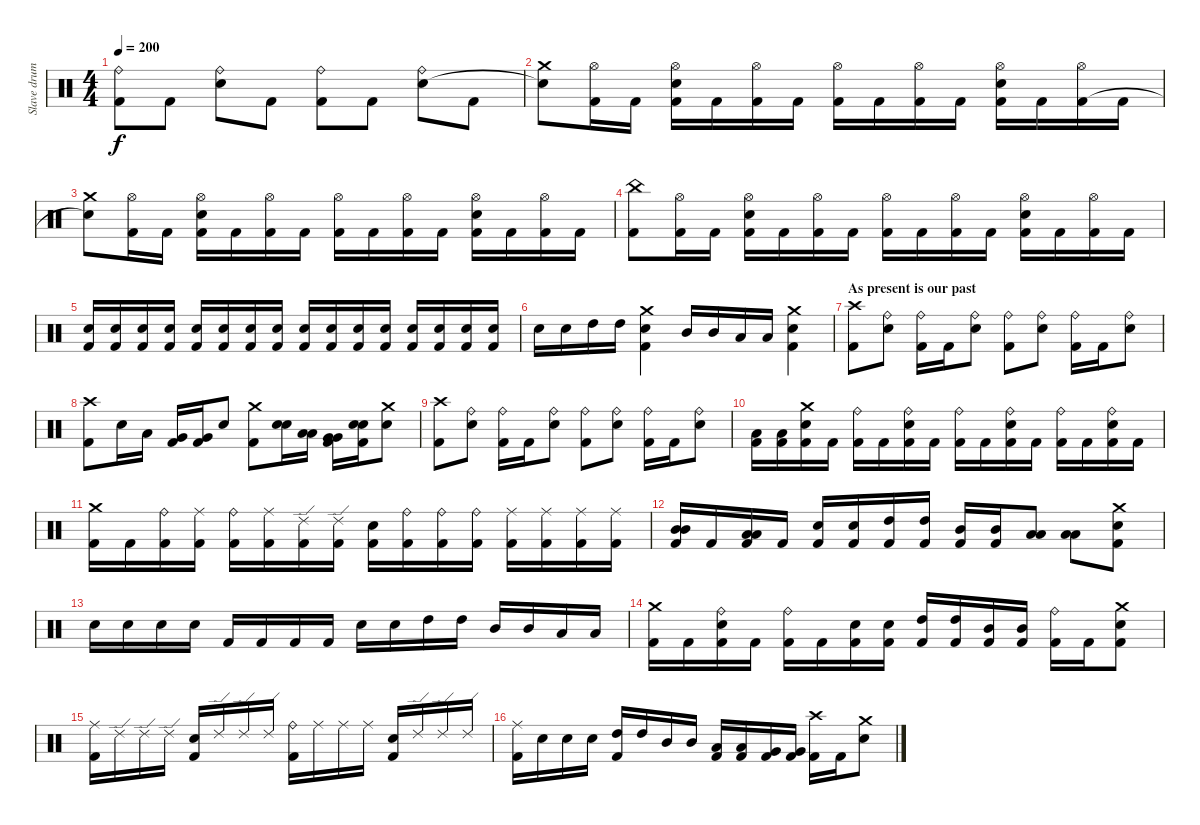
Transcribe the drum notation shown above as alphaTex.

\track ("Slave drum" "Slave drum") {instrument percussion}
\staff {score}
\articulation defaults
\ts (4 4)
\tempo 200
\clef neutral
\ks c
("Ride (bell)" "Kick (hit) 2").8{dy f} "Kick (hit) 2".8 ("Ride (bell)" "Electric Snare (hit)").8 "Kick (hit) 2".8 ("Ride (bell)" "Kick (hit) 2").8 "Kick (hit) 2".8 ("Ride (bell)" "Electric Snare (hit)").8 "Kick (hit) 2".8 |
("Crash medium (hit)" "Snare (hit)"{t}).8 ("Hi-Hat (open)" "Kick (hit) 2").16 "Kick (hit) 2".16 ("Hi-Hat (open)" "Electric Snare (hit)" "Kick (hit) 2").16 "Kick (hit) 2".16 ("Hi-Hat (open)" "Kick (hit) 2").16 "Kick (hit) 2".16 ("Hi-Hat (open)" "Kick (hit) 2").16 "Kick (hit) 2".16 ("Hi-Hat (open)" "Kick (hit) 2").16 "Kick (hit) 2".16 ("Hi-Hat (open)" "Electric Snare (hit)" "Kick (hit) 2").16 "Kick (hit) 2".16 ("Hi-Hat (open)" "Kick (hit) 2").16 "Kick (hit) 2".16 |
("Crash medium (hit)" "Snare (hit)"{t}).8 ("Hi-Hat (open)" "Kick (hit) 2").16 "Kick (hit) 2".16 ("Hi-Hat (open)" "Electric Snare (hit)" "Kick (hit) 2").16 "Kick (hit) 2".16 ("Hi-Hat (open)" "Kick (hit) 2").16 "Kick (hit) 2".16 ("Hi-Hat (open)" "Kick (hit) 2").16 "Kick (hit) 2".16 ("Hi-Hat (open)" "Kick (hit) 2").16 "Kick (hit) 2".16 ("Hi-Hat (open)" "Electric Snare (hit)" "Kick (hit) 2").16 "Kick (hit) 2".16 ("Hi-Hat (open)" "Kick (hit) 2").16 "Kick (hit) 2".16 |
("China (hit)" "Kick (hit) 2").8 ("Hi-Hat (open)" "Kick (hit) 2").16 "Kick (hit) 2".16 ("Hi-Hat (open)" "Electric Snare (hit)" "Kick (hit) 2").16 "Kick (hit) 2".16 ("Hi-Hat (open)" "Kick (hit) 2").16 "Kick (hit) 2".16 ("Hi-Hat (open)" "Kick (hit) 2").16 "Kick (hit) 2".16 ("Hi-Hat (open)" "Kick (hit) 2").16 "Kick (hit) 2".16 ("Hi-Hat (open)" "Electric Snare (hit)" "Kick (hit) 2").16 "Kick (hit) 2".16 ("Hi-Hat (open)" "Kick (hit) 2").16 "Kick (hit) 2".16 |
("Electric Snare (hit)" "Kick (hit) 2").16 ("Electric Snare (hit)" "Kick (hit) 2").16 ("Electric Snare (hit)" "Kick (hit) 2").16 ("Electric Snare (hit)" "Kick (hit) 2").16 ("Electric Snare (hit)" "Kick (hit) 2").16 ("Electric Snare (hit)" "Kick (hit) 2").16 ("Electric Snare (hit)" "Kick (hit) 2").16 ("Electric Snare (hit)" "Kick (hit) 2").16 ("Electric Snare (hit)" "Kick (hit) 2").16 ("Electric Snare (hit)" "Kick (hit) 2").16 ("Electric Snare (hit)" "Kick (hit) 2").16 ("Electric Snare (hit)" "Kick (hit) 2").16 ("Electric Snare (hit)" "Kick (hit) 2").16 ("Electric Snare (hit)" "Kick (hit) 2").16 ("Electric Snare (hit)" "Kick (hit) 2").16 ("Electric Snare (hit)" "Kick (hit) 2").16 |
"Electric Snare (hit)".16 "Electric Snare (hit)".16 "High Tom (hit)".16 "High Tom (hit)".16 ("Crash medium (hit)" "Electric Snare (hit)" "Kick (hit) 2").4 "Mid Tom (hit)".16 "Mid Tom (hit)".16 "Low Tom (hit)".16 "Low Tom (hit)".16 ("Crash medium (hit)" "Electric Snare (hit)" "Kick (hit) 2").4 |
\section ("" "As present is our past")
("Crash high (hit)" "Kick (hit) 2").8 ("Ride (bell)" "Electric Snare (hit)").8 ("Ride (bell)" "Kick (hit) 2").16 "Kick (hit) 2".16 ("Ride (bell)" "Electric Snare (hit)").8 ("Ride (bell)" "Kick (hit) 2").8 ("Ride (bell)" "Electric Snare (hit)").8 ("Ride (bell)" "Kick (hit) 2").16 "Kick (hit) 2".16 ("Ride (bell)" "Electric Snare (hit)").8 |
("Crash high (hit)" "Kick (hit) 2").8 "Electric Snare (hit)".16 "Low Tom (hit)".16 ("Very Low Tom (hit)" "Kick (hit) 2").16 ("Very Low Tom (hit)" "Kick (hit) 2").16 "Electric Snare (hit)".8 ("Crash medium (hit)" "Kick (hit) 2").8 ("Electric Snare (hit)" "Electric Snare (hit)").16 ("Low Tom (hit)" "Low Tom (hit)").16 ("Very Low Tom (hit)" "Very Low Tom (hit)" "Kick (hit) 2").16 ("Snare (hit)" "Snare (hit)" "Kick (hit) 2").16 ("Crash medium (hit)" "Electric Snare (hit)").8 |
("Crash high (hit)" "Kick (hit) 2").8 ("Ride (bell)" "Electric Snare (hit)").8 ("Ride (bell)" "Kick (hit) 2").16 "Kick (hit) 2".16 ("Ride (bell)" "Electric Snare (hit)").8 ("Ride (bell)" "Kick (hit) 2").8 ("Ride (bell)" "Electric Snare (hit)").8 ("Ride (bell)" "Kick (hit) 2").16 "Kick (hit) 2".16 ("Ride (bell)" "Electric Snare (hit)").8 |
("Low Tom (hit)" "Kick (hit) 2").16 ("Low Tom (hit)" "Kick (hit) 2").16 ("Crash medium (hit)" "Electric Snare (hit)" "Kick (hit) 2").16 "Kick (hit) 2".16 ("Ride (bell)" "Kick (hit) 2").16 "Kick (hit) 2".16 ("Ride (bell)" "Electric Snare (hit)" "Kick (hit) 2").16 "Kick (hit) 2".16 ("Ride (bell)" "Kick (hit) 2").16 "Kick (hit) 2".16 ("Ride (bell)" "Electric Snare (hit)" "Kick (hit) 2").16 "Kick (hit) 2".16 ("Ride (bell)" "Kick (hit) 2").16 "Kick (hit) 2".16 ("Ride (bell)" "Electric Snare (hit)" "Kick (hit) 2").16 "Kick (hit) 2".16 |
("Crash medium (hit)" "Kick (hit) 2").16 "Kick (hit) 2".16 ("Ride (bell)" "Kick (hit) 2").16 ("Ride (middle)" "Kick (hit) 2").16 ("Ride (bell)" "Kick (hit) 2").16 ("Ride (middle)" "Kick (hit) 2").16 ("Ride (edge) 2" "Kick (hit) 2").16 ("Ride (edge) 2" "Kick (hit) 2").16 ("Electric Snare (hit)" "Kick (hit) 2").16 ("Ride (bell)" "Kick (hit) 2").16 ("Ride (bell)" "Kick (hit) 2").16 ("Ride (bell)" "Kick (hit) 2").16 ("Ride (middle)" "Kick (hit) 2").16 ("Ride (middle)" "Kick (hit) 2").16 ("Ride (middle)" "Kick (hit) 2").16 ("Ride (middle)" "Kick (hit) 2").16 |
("Mid Tom (hit)" "Mid Tom (hit)" "Kick (hit) 2").16 "Kick (hit) 2".16 ("Low Tom (hit)" "Low Tom (hit)" "Kick (hit) 2").16 "Kick (hit) 2".16 ("Electric Snare (hit)" "Kick (hit) 2").16 ("Electric Snare (hit)" "Kick (hit) 2").16 ("High Tom (hit)" "Kick (hit) 2").16 ("High Tom (hit)" "Kick (hit) 2").16 ("Mid Tom (hit)" "Kick (hit) 2").16 ("Mid Tom (hit)" "Kick (hit) 2").16 ("Low Tom (hit)" "Low Tom (hit)").8 ("Low Tom (hit)" "Low Tom (hit)").8 ("Crash medium (hit)" "Electric Snare (hit)" "Kick (hit) 2").8 |
"Electric Snare (hit)".16 "Electric Snare (hit)".16 "Electric Snare (hit)".16 "Electric Snare (hit)".16 "Kick (hit) 2".16 "Kick (hit) 2".16 "Kick (hit) 2".16 "Kick (hit) 2".16 "Electric Snare (hit)".16 "Electric Snare (hit)".16 "High Tom (hit)".16 "High Tom (hit)".16 "Mid Tom (hit)".16 "Mid Tom (hit)".16 "Low Tom (hit)".16 "Low Tom (hit)".16 |
("Crash medium (hit)" "Kick (hit) 2").16 "Kick (hit) 2".16 ("Ride (bell)" "Electric Snare (hit)" "Kick (hit) 2").16 "Kick (hit) 2".16 ("Ride (bell)" "Kick (hit) 2").16 "Kick (hit) 2".16 ("Electric Snare (hit)" "Kick (hit) 2").16 ("Electric Snare (hit)" "Kick (hit) 2").16 ("High Tom (hit)" "Kick (hit) 2").16 ("High Tom (hit)" "Kick (hit) 2").16 ("Mid Tom (hit)" "Kick (hit) 2").16 ("Mid Tom (hit)" "Kick (hit) 2").16 ("Ride (bell)" "Kick (hit) 2").16 "Kick (hit) 2".16 ("Crash medium (hit)" "Electric Snare (hit)" "Kick (hit) 2").8 |
("Ride (middle)" "Kick (hit) 2").16 "Ride (edge) 2".16 "Ride (edge) 2".16 "Ride (edge) 2".16 ("Electric Snare (hit)" "Kick (hit) 2").16 "Ride (edge) 2".16 "Ride (edge) 2".16 "Ride (edge) 2".16 ("Ride (bell)" "Kick (hit) 2").16 "Ride (middle)".16 "Ride (middle)".16 "Ride (middle)".16 ("Electric Snare (hit)" "Kick (hit) 2").16 "Ride (edge) 2".16 "Ride (edge) 2".16 "Ride (edge) 2".16 |
("Ride (middle)" "Kick (hit) 2").16 "Electric Snare (hit)".16 "Electric Snare (hit)".16 "Electric Snare (hit)".16 ("High Tom (hit)" "Kick (hit) 2").16 "High Tom (hit)".16 "Mid Tom (hit)".16 "Mid Tom (hit)".16 ("Low Tom (hit)" "Kick (hit) 2").16 ("Low Tom (hit)" "Kick (hit) 2").16 ("Very Low Tom (hit)" "Kick (hit) 2").16 ("Very Low Tom (hit)" "Kick (hit) 2").16 ("Crash high (hit)" "Kick (hit) 2").16 "Kick (hit) 2".16 ("Crash medium (hit)" "Electric Snare (hit)").8
